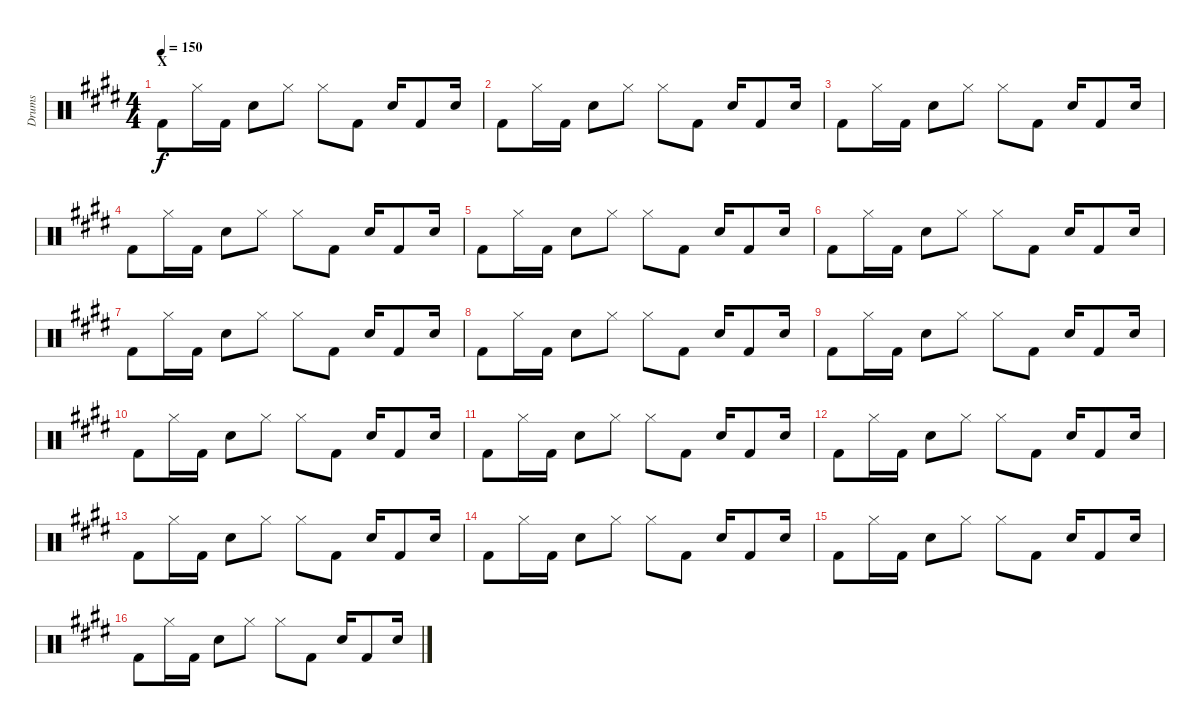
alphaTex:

\track ("Drums" "Drums") {instrument percussion bank 15}
\staff {score}
\articulation defaults
\ts (4 4)
\section ("" "X")
\tempo 150
\clef neutral
\ks e "Kick (hit) 2".8{dy f} "Hi-Hat (closed)".16 "Kick (hit) 2".16 "Snare (hit) 2".8 "Hi-Hat (closed)".8 "Hi-Hat (closed)".8 "Kick (hit) 2".8 "Snare (hit) 2".16 "Kick (hit) 2".8 "Snare (hit) 2".16
|
"Kick (hit) 2".8 "Hi-Hat (closed)".16 "Kick (hit) 2".16 "Snare (hit) 2".8 "Hi-Hat (closed)".8 "Hi-Hat (closed)".8 "Kick (hit) 2".8 "Snare (hit) 2".16 "Kick (hit) 2".8 "Snare (hit) 2".16 |
"Kick (hit) 2".8 "Hi-Hat (closed)".16 "Kick (hit) 2".16 "Snare (hit) 2".8 "Hi-Hat (closed)".8 "Hi-Hat (closed)".8 "Kick (hit) 2".8 "Snare (hit) 2".16 "Kick (hit) 2".8 "Snare (hit) 2".16 |
"Kick (hit) 2".8 "Hi-Hat (closed)".16 "Kick (hit) 2".16 "Snare (hit) 2".8 "Hi-Hat (closed)".8 "Hi-Hat (closed)".8 "Kick (hit) 2".8 "Snare (hit) 2".16 "Kick (hit) 2".8 "Snare (hit) 2".16 |
"Kick (hit) 2".8 "Hi-Hat (closed)".16 "Kick (hit) 2".16 "Snare (hit) 2".8 "Hi-Hat (closed)".8 "Hi-Hat (closed)".8 "Kick (hit) 2".8 "Snare (hit) 2".16 "Kick (hit) 2".8 "Snare (hit) 2".16 |
"Kick (hit) 2".8 "Hi-Hat (closed)".16 "Kick (hit) 2".16 "Snare (hit) 2".8 "Hi-Hat (closed)".8 "Hi-Hat (closed)".8 "Kick (hit) 2".8 "Snare (hit) 2".16 "Kick (hit) 2".8 "Snare (hit) 2".16 |
"Kick (hit) 2".8 "Hi-Hat (closed)".16 "Kick (hit) 2".16 "Snare (hit) 2".8 "Hi-Hat (closed)".8 "Hi-Hat (closed)".8 "Kick (hit) 2".8 "Snare (hit) 2".16 "Kick (hit) 2".8 "Snare (hit) 2".16 |
"Kick (hit) 2".8 "Hi-Hat (closed)".16 "Kick (hit) 2".16 "Snare (hit) 2".8 "Hi-Hat (closed)".8 "Hi-Hat (closed)".8 "Kick (hit) 2".8 "Snare (hit) 2".16 "Kick (hit) 2".8 "Snare (hit) 2".16 |
"Kick (hit) 2".8 "Hi-Hat (closed)".16 "Kick (hit) 2".16 "Snare (hit) 2".8 "Hi-Hat (closed)".8 "Hi-Hat (closed)".8 "Kick (hit) 2".8 "Snare (hit) 2".16 "Kick (hit) 2".8 "Snare (hit) 2".16 |
"Kick (hit) 2".8 "Hi-Hat (closed)".16 "Kick (hit) 2".16 "Snare (hit) 2".8 "Hi-Hat (closed)".8 "Hi-Hat (closed)".8 "Kick (hit) 2".8 "Snare (hit) 2".16 "Kick (hit) 2".8 "Snare (hit) 2".16 |
"Kick (hit) 2".8 "Hi-Hat (closed)".16 "Kick (hit) 2".16 "Snare (hit) 2".8 "Hi-Hat (closed)".8 "Hi-Hat (closed)".8 "Kick (hit) 2".8 "Snare (hit) 2".16 "Kick (hit) 2".8 "Snare (hit) 2".16 |
"Kick (hit) 2".8 "Hi-Hat (closed)".16 "Kick (hit) 2".16 "Snare (hit) 2".8 "Hi-Hat (closed)".8 "Hi-Hat (closed)".8 "Kick (hit) 2".8 "Snare (hit) 2".16 "Kick (hit) 2".8 "Snare (hit) 2".16 |
"Kick (hit) 2".8 "Hi-Hat (closed)".16 "Kick (hit) 2".16 "Snare (hit) 2".8 "Hi-Hat (closed)".8 "Hi-Hat (closed)".8 "Kick (hit) 2".8 "Snare (hit) 2".16 "Kick (hit) 2".8 "Snare (hit) 2".16 |
"Kick (hit) 2".8 "Hi-Hat (closed)".16 "Kick (hit) 2".16 "Snare (hit) 2".8 "Hi-Hat (closed)".8 "Hi-Hat (closed)".8 "Kick (hit) 2".8 "Snare (hit) 2".16 "Kick (hit) 2".8 "Snare (hit) 2".16 |
"Kick (hit) 2".8 "Hi-Hat (closed)".16 "Kick (hit) 2".16 "Snare (hit) 2".8 "Hi-Hat (closed)".8 "Hi-Hat (closed)".8 "Kick (hit) 2".8 "Snare (hit) 2".16 "Kick (hit) 2".8 "Snare (hit) 2".16 |
"Kick (hit) 2".8 "Hi-Hat (closed)".16 "Kick (hit) 2".16 "Snare (hit) 2".8 "Hi-Hat (closed)".8 "Hi-Hat (closed)".8 "Kick (hit) 2".8 "Snare (hit) 2".16 "Kick (hit) 2".8 "Snare (hit) 2".16
